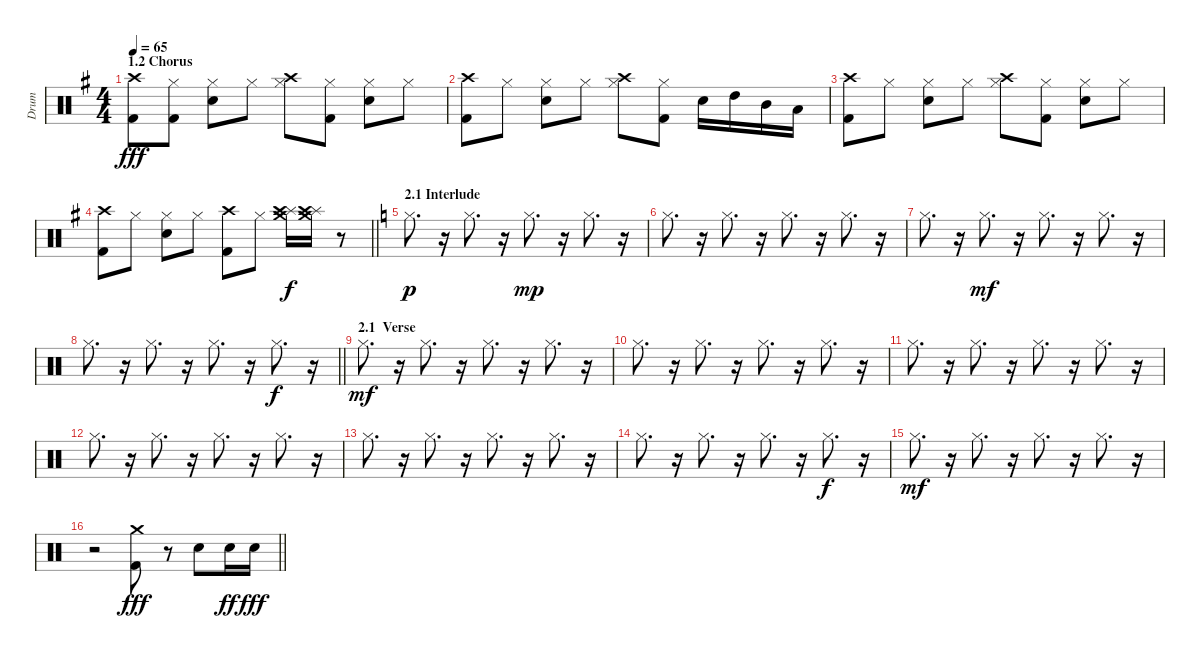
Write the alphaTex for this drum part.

\track ("Drum" "Drum") {instrument percussion}
\staff {score}
\articulation defaults
\ts (4 4)
\section ("" "1.2 Chorus")
\tempo 65
\clef neutral
\ks eminor
("Crash high (hit)" "Kick (hit) 2").8{dy fff} ("Kick (hit) 2" "Hi-Hat (closed)").8 ("Electric Snare (hit)" "Hi-Hat (closed)").8 "Hi-Hat (closed)".8 ("Crash high (hit)" "Hi-Hat (closed)").8 ("Kick (hit) 2" "Hi-Hat (closed)").8 ("Electric Snare (hit)" "Hi-Hat (closed)").8 "Hi-Hat (closed)".8 |
("Crash high (hit)" "Kick (hit) 2").8 "Hi-Hat (closed)".8 ("Electric Snare (hit)" "Hi-Hat (closed)").8 "Hi-Hat (closed)".8 ("Crash high (hit)" "Hi-Hat (closed)").8 ("Kick (hit) 2" "Hi-Hat (closed)").8 "Electric Snare (hit)".16 "High Tom (hit)".16 "Mid Tom (hit)".16 "Low Tom (hit)".16 |
("Crash high (hit)" "Kick (hit) 2").8 "Hi-Hat (closed)".8 ("Electric Snare (hit)" "Hi-Hat (closed)").8 "Hi-Hat (closed)".8 ("Crash high (hit)" "Hi-Hat (closed)").8 ("Kick (hit) 2" "Hi-Hat (closed)").8 ("Electric Snare (hit)" "Hi-Hat (closed)").8 "Hi-Hat (closed)".8 |
\barLineRight lightlight
("Crash high (hit)" "Kick (hit) 2").8 "Hi-Hat (closed)".8 ("Electric Snare (hit)" "Hi-Hat (closed)").8 "Hi-Hat (closed)".8 ("Crash high (hit)" "Kick (hit) 2").8 "Hi-Hat (closed)".8 ("Splash (hit)" "Crash medium (hit)" "Crash high (hit)").16{dy f} ("Splash (hit)" "Crash medium (hit)" "Crash high (hit)").16 r.8 |
\section ("" "2.1 Interlude")
\ks c "Hi-Hat (closed)".8{d dy p}
r.16 "Hi-Hat (closed)".8{d} r.16 "Hi-Hat (closed)".8{d dy mp} r.16 "Hi-Hat (closed)".8{d} r.16 |
"Hi-Hat (closed)".8{d} r.16 "Hi-Hat (closed)".8{d} r.16 "Hi-Hat (closed)".8{d} r.16 "Hi-Hat (closed)".8{d} r.16 |
"Hi-Hat (closed)".8{d} r.16 "Hi-Hat (closed)".8{d dy mf} r.16 "Hi-Hat (closed)".8{d} r.16 "Hi-Hat (closed)".8{d} r.16 |
\barLineRight lightlight "Hi-Hat (closed)".8{d}
r.16 "Hi-Hat (closed)".8{d} r.16 "Hi-Hat (closed)".8{d} r.16 "Hi-Hat (closed)".8{d dy f} r.16 |
\section ("" "2.1  Verse")
"Hi-Hat (closed)".8{d dy mf} r.16 "Hi-Hat (closed)".8{d} r.16 "Hi-Hat (closed)".8{d} r.16 "Hi-Hat (closed)".8{d} r.16 |
"Hi-Hat (closed)".8{d} r.16 "Hi-Hat (closed)".8{d} r.16 "Hi-Hat (closed)".8{d} r.16 "Hi-Hat (closed)".8{d} r.16 |
"Hi-Hat (closed)".8{d} r.16 "Hi-Hat (closed)".8{d} r.16 "Hi-Hat (closed)".8{d} r.16 "Hi-Hat (closed)".8{d} r.16 |
"Hi-Hat (closed)".8{d} r.16 "Hi-Hat (closed)".8{d} r.16 "Hi-Hat (closed)".8{d} r.16 "Hi-Hat (closed)".8{d} r.16 |
"Hi-Hat (closed)".8{d} r.16 "Hi-Hat (closed)".8{d} r.16 "Hi-Hat (closed)".8{d} r.16 "Hi-Hat (closed)".8{d} r.16 |
"Hi-Hat (closed)".8{d} r.16 "Hi-Hat (closed)".8{d} r.16 "Hi-Hat (closed)".8{d} r.16 "Hi-Hat (closed)".8{d dy f} r.16 |
"Hi-Hat (closed)".8{d dy mf} r.16 "Hi-Hat (closed)".8{d} r.16 "Hi-Hat (closed)".8{d} r.16 "Hi-Hat (closed)".8{d} r.16 |
\barLineRight lightlight
r.2 ("Crash medium (hit)" "Kick (hit) 2").8{dy fff} r.8 "Electric Snare (hit)".8 "Electric Snare (hit)".16{dy ff} "Electric Snare (hit)".16{dy fff}
